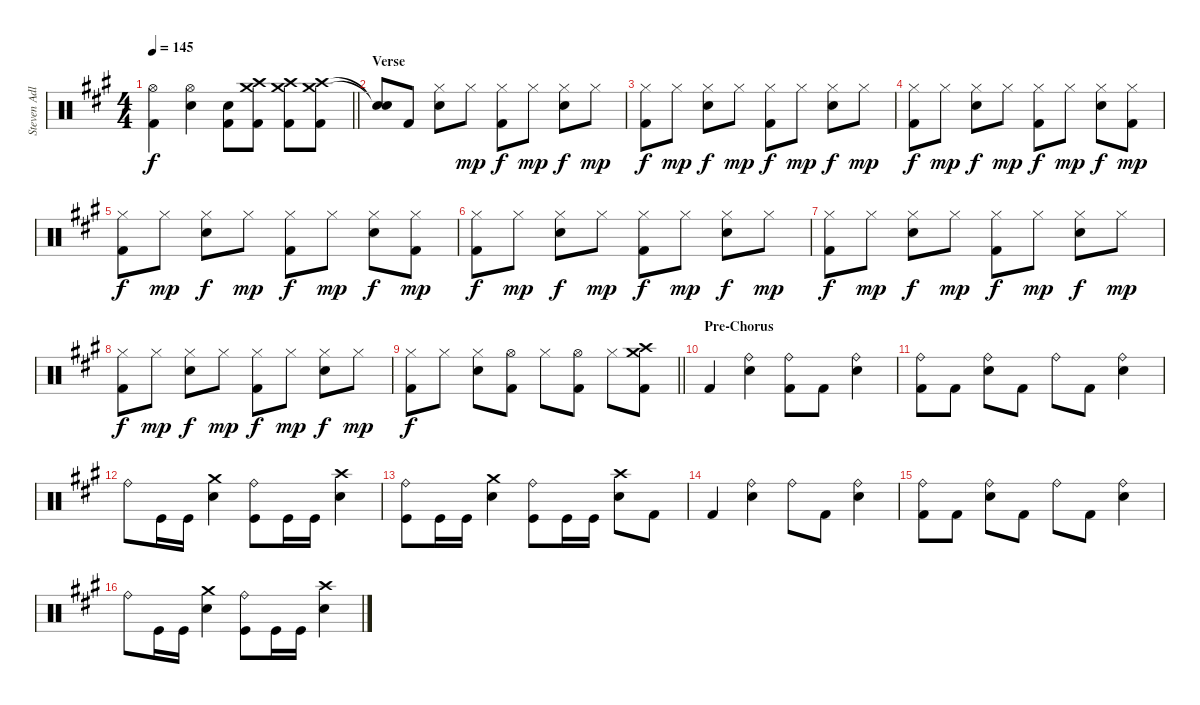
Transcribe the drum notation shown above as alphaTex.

\track ("Steven Adler - Drums" "Steven Adl") {instrument percussion}
\staff {score}
\articulation defaults
\ts (4 4)
\tempo 145
\clef neutral
\barLineRight lightlight
\ks a
("Hi-Hat (open)" "Kick (hit) 2").4{dy f} ("Hi-Hat (open)" "Snare (hit) 2").4 ("Snare (hit) 2" "Kick (hit) 2").8 ("Crash medium (hit)" "Crash high (hit)" "Kick (hit) 2").8 ("Crash medium (hit)" "Crash high (hit)" "Kick (hit) 2").8 ("Crash medium (hit)" "Crash high (hit)" "Kick (hit) 2").8 |
\section ("" "Verse")
("Snare (hit)"{t} "Snare (hit)"{t}).8 "Kick (hit) 2".8 ("Hi-Hat (closed)" "Snare (hit) 2").8 "Hi-Hat (closed)".8{dy mp} ("Hi-Hat (closed)" "Kick (hit) 2").8{dy f} "Hi-Hat (closed)".8{dy mp} ("Hi-Hat (closed)" "Snare (hit) 2").8{dy f} "Hi-Hat (closed)".8{dy mp} |
("Hi-Hat (closed)" "Kick (hit) 2").8{dy f} "Hi-Hat (closed)".8{dy mp} ("Hi-Hat (closed)" "Snare (hit) 2").8{dy f} "Hi-Hat (closed)".8{dy mp} ("Hi-Hat (closed)" "Kick (hit) 2").8{dy f} "Hi-Hat (closed)".8{dy mp} ("Hi-Hat (closed)" "Snare (hit) 2").8{dy f} "Hi-Hat (closed)".8{dy mp} |
("Hi-Hat (closed)" "Kick (hit) 2").8{dy f} "Hi-Hat (closed)".8{dy mp} ("Hi-Hat (closed)" "Snare (hit) 2").8{dy f} "Hi-Hat (closed)".8{dy mp} ("Hi-Hat (closed)" "Kick (hit) 2").8{dy f} "Hi-Hat (closed)".8{dy mp} ("Hi-Hat (closed)" "Snare (hit) 2").8{dy f} ("Hi-Hat (closed)" "Kick (hit) 2").8{dy mp} |
("Hi-Hat (closed)" "Kick (hit) 2").8{dy f} "Hi-Hat (closed)".8{dy mp} ("Hi-Hat (closed)" "Snare (hit) 2").8{dy f} "Hi-Hat (closed)".8{dy mp} ("Hi-Hat (closed)" "Kick (hit) 2").8{dy f} "Hi-Hat (closed)".8{dy mp} ("Hi-Hat (closed)" "Snare (hit) 2").8{dy f} ("Hi-Hat (closed)" "Kick (hit) 2").8{dy mp} |
("Hi-Hat (closed)" "Kick (hit) 2").8{dy f} "Hi-Hat (closed)".8{dy mp} ("Hi-Hat (closed)" "Snare (hit) 2").8{dy f} "Hi-Hat (closed)".8{dy mp} ("Hi-Hat (closed)" "Kick (hit) 2").8{dy f} "Hi-Hat (closed)".8{dy mp} ("Hi-Hat (closed)" "Snare (hit) 2").8{dy f} "Hi-Hat (closed)".8{dy mp} |
("Hi-Hat (closed)" "Kick (hit) 2").8{dy f} "Hi-Hat (closed)".8{dy mp} ("Hi-Hat (closed)" "Snare (hit) 2").8{dy f} "Hi-Hat (closed)".8{dy mp} ("Hi-Hat (closed)" "Kick (hit) 2").8{dy f} "Hi-Hat (closed)".8{dy mp} ("Hi-Hat (closed)" "Snare (hit) 2").8{dy f} "Hi-Hat (closed)".8{dy mp} |
("Hi-Hat (closed)" "Kick (hit) 2").8{dy f} "Hi-Hat (closed)".8{dy mp} ("Hi-Hat (closed)" "Snare (hit) 2").8{dy f} "Hi-Hat (closed)".8{dy mp} ("Hi-Hat (closed)" "Kick (hit) 2").8{dy f} "Hi-Hat (closed)".8{dy mp} ("Hi-Hat (closed)" "Snare (hit) 2").8{dy f} "Hi-Hat (closed)".8{dy mp} |
\barLineRight lightlight
("Hi-Hat (closed)" "Kick (hit) 2").8{dy f} "Hi-Hat (closed)".8 ("Hi-Hat (closed)" "Snare (hit) 2").8 ("Hi-Hat (open)" "Kick (hit) 2").8 "Hi-Hat (closed)".8 ("Hi-Hat (open)" "Kick (hit) 2").8 "Hi-Hat (closed)".8 ("Crash medium (hit)" "Crash high (hit)" "Kick (hit) 2").8 |
\section ("" "Pre-Chorus")
"Kick (hit) 2".4 ("Ride (bell)" "Snare (hit) 2").4 ("Ride (bell)" "Kick (hit) 2").8 "Kick (hit) 2".8 ("Ride (bell)" "Snare (hit) 2").4 |
("Ride (bell)" "Kick (hit) 2").8 "Kick (hit) 2".8 ("Ride (bell)" "Snare (hit) 2").8 "Kick (hit) 2".8 "Ride (bell)".8 "Kick (hit) 2".8 ("Ride (bell)" "Snare (hit) 2").4 |
"Ride (bell)".8 "Kick (hit)".16 "Kick (hit)".16 ("Crash medium (hit)" "Snare (hit) 2").4 ("Ride (bell)" "Kick (hit)").8 "Kick (hit)".16 "Kick (hit)".16 ("Crash high (hit)" "Snare (hit) 2").4 |
("Ride (bell)" "Kick (hit)").8 "Kick (hit)".16 "Kick (hit)".16 ("Crash medium (hit)" "Snare (hit) 2").4 ("Ride (bell)" "Kick (hit)").8 "Kick (hit)".16 "Kick (hit)".16 ("Crash high (hit)" "Snare (hit) 2").8 "Kick (hit) 2".8 |
"Kick (hit) 2".4 ("Ride (bell)" "Snare (hit) 2").4 "Ride (bell)".8 "Kick (hit) 2".8 ("Ride (bell)" "Snare (hit) 2").4 |
("Ride (bell)" "Kick (hit) 2").8 "Kick (hit) 2".8 ("Ride (bell)" "Snare (hit) 2").8 "Kick (hit) 2".8 "Ride (bell)".8 "Kick (hit) 2".8 ("Ride (bell)" "Snare (hit) 2").4 |
"Ride (bell)".8 "Kick (hit)".16 "Kick (hit)".16 ("Crash medium (hit)" "Snare (hit) 2").4 ("Ride (bell)" "Kick (hit)").8 "Kick (hit)".16 "Kick (hit)".16 ("Crash high (hit)" "Snare (hit) 2").4
